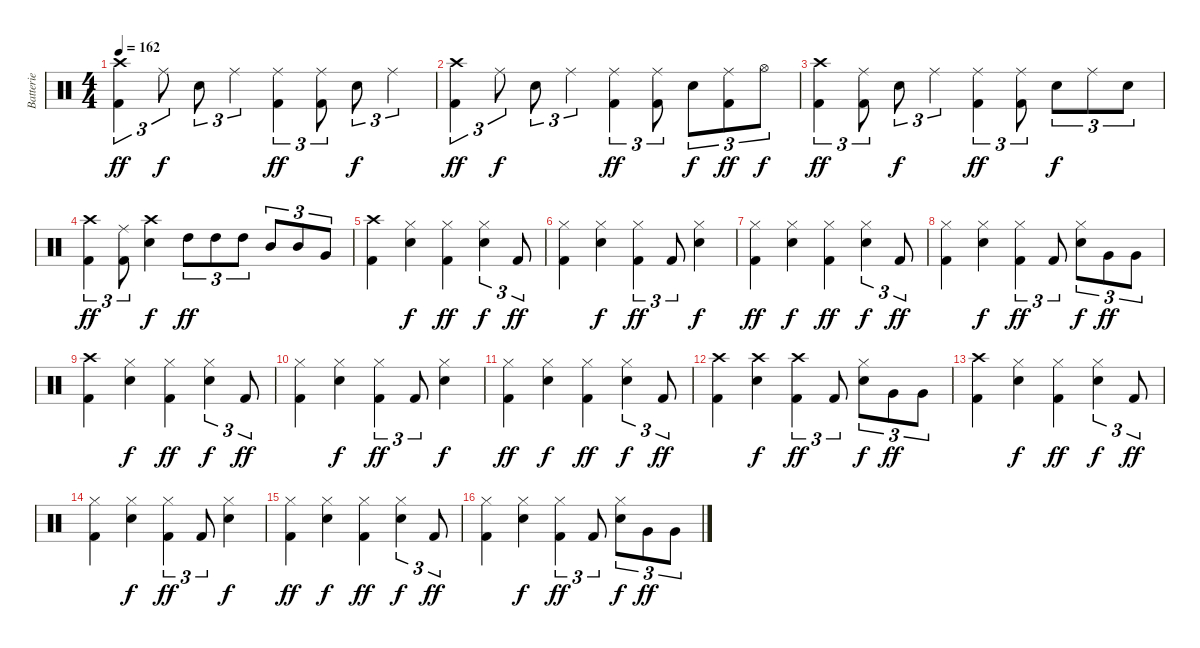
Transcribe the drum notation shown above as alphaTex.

\track ("Batterie" "Batterie") {instrument percussion}
\staff {score}
\articulation defaults
\ts (4 4)
\tempo 162
\clef neutral
\ks c
("Crash high (hit)" "Kick (hit) 2").4{tu (3 2) dy ff} "Ride (middle)".8{tu (3 2) dy f} "Snare (hit) 2".8{tu (3 2)} "Ride (middle)".4{tu (3 2)} ("Ride (middle)" "Kick (hit) 2").4{tu (3 2) dy ff} ("Ride (middle)" "Kick (hit) 2").8{tu (3 2)} "Snare (hit) 2".8{tu (3 2) dy f} "Ride (middle)".4{tu (3 2)} |
("Crash high (hit)" "Kick (hit) 2").4{tu (3 2) dy ff} "Ride (middle)".8{tu (3 2) dy f} "Snare (hit) 2".8{tu (3 2)} "Ride (middle)".4{tu (3 2)} ("Ride (middle)" "Kick (hit) 2").4{tu (3 2) dy ff} ("Ride (middle)" "Kick (hit) 2").8{tu (3 2)} "Snare (hit) 2".8{tu (3 2) dy f} ("Ride (middle)" "Kick (hit) 2").8{tu (3 2) dy ff} "Hi-Hat (open)".8{tu (3 2) dy f} |
("Crash high (hit)" "Kick (hit) 2").4{tu (3 2) dy ff} ("Ride (middle)" "Kick (hit) 2").8{tu (3 2)} "Snare (hit) 2".8{tu (3 2) dy f} "Ride (middle)".4{tu (3 2)} ("Ride (middle)" "Kick (hit) 2").4{tu (3 2) dy ff} ("Ride (middle)" "Kick (hit) 2").8{tu (3 2)} "Snare (hit) 2".8{tu (3 2) dy f} "Ride (middle)".8{tu (3 2)} "Snare (hit) 2".8{tu (3 2)} |
("Crash high (hit)" "Kick (hit) 2").4{tu (3 2) dy ff} ("Ride (middle)" "Kick (hit) 2").8{tu (3 2)} ("Crash high (hit)" "Snare (hit) 2").4{dy f} "High Tom (hit)".8{tu (3 2) dy ff} "High Tom (hit)".8{tu (3 2)} "High Tom (hit)".8{tu (3 2)} "Mid Tom (hit)".8{tu (3 2)} "Mid Tom (hit)".8{tu (3 2)} "Very Low Tom (hit)".8{tu (3 2)} |
("Crash high (hit)" "Kick (hit) 2").4 ("Hi-Hat (closed)" "Snare (hit) 2").4{dy f} ("Hi-Hat (closed)" "Kick (hit) 2").4{dy ff} ("Hi-Hat (closed)" "Snare (hit) 2").4{tu (3 2) dy f} "Kick (hit) 2".8{tu (3 2) dy ff} |
("Hi-Hat (closed)" "Kick (hit) 2").4 ("Hi-Hat (closed)" "Snare (hit) 2").4{dy f} ("Hi-Hat (closed)" "Kick (hit) 2").4{tu (3 2) dy ff} "Kick (hit) 2".8{tu (3 2)} ("Hi-Hat (closed)" "Snare (hit) 2").4{dy f} |
("Hi-Hat (closed)" "Kick (hit) 2").4{dy ff} ("Hi-Hat (closed)" "Snare (hit) 2").4{dy f} ("Hi-Hat (closed)" "Kick (hit) 2").4{dy ff} ("Hi-Hat (closed)" "Snare (hit) 2").4{tu (3 2) dy f} "Kick (hit) 2".8{tu (3 2) dy ff} |
("Hi-Hat (closed)" "Kick (hit) 2").4 ("Hi-Hat (closed)" "Snare (hit) 2").4{dy f} ("Hi-Hat (closed)" "Kick (hit) 2").4{tu (3 2) dy ff} "Kick (hit) 2".8{tu (3 2)} ("Hi-Hat (closed)" "Snare (hit) 2").8{tu (3 2) dy f} "Very Low Tom (hit)".8{tu (3 2) dy ff} "Very Low Tom (hit)".8{tu (3 2)} |
("Crash high (hit)" "Kick (hit) 2").4 ("Hi-Hat (closed)" "Snare (hit) 2").4{dy f} ("Hi-Hat (closed)" "Kick (hit) 2").4{dy ff} ("Hi-Hat (closed)" "Snare (hit) 2").4{tu (3 2) dy f} "Kick (hit) 2".8{tu (3 2) dy ff} |
("Hi-Hat (closed)" "Kick (hit) 2").4 ("Hi-Hat (closed)" "Snare (hit) 2").4{dy f} ("Hi-Hat (closed)" "Kick (hit) 2").4{tu (3 2) dy ff} "Kick (hit) 2".8{tu (3 2)} ("Hi-Hat (closed)" "Snare (hit) 2").4{dy f} |
("Hi-Hat (closed)" "Kick (hit) 2").4{dy ff} ("Hi-Hat (closed)" "Snare (hit) 2").4{dy f} ("Hi-Hat (closed)" "Kick (hit) 2").4{dy ff} ("Hi-Hat (closed)" "Snare (hit) 2").4{tu (3 2) dy f} "Kick (hit) 2".8{tu (3 2) dy ff} |
("Crash high (hit)" "Kick (hit) 2").4 ("Crash high (hit)" "Snare (hit) 2").4{dy f} ("Crash high (hit)" "Kick (hit) 2").4{tu (3 2) dy ff} "Kick (hit) 2".8{tu (3 2)} ("Hi-Hat (closed)" "Snare (hit) 2").8{tu (3 2) dy f} "Very Low Tom (hit)".8{tu (3 2) dy ff} "Very Low Tom (hit)".8{tu (3 2)} |
("Crash high (hit)" "Kick (hit) 2").4 ("Hi-Hat (closed)" "Snare (hit) 2").4{dy f} ("Hi-Hat (closed)" "Kick (hit) 2").4{dy ff} ("Hi-Hat (closed)" "Snare (hit) 2").4{tu (3 2) dy f} "Kick (hit) 2".8{tu (3 2) dy ff} |
("Hi-Hat (closed)" "Kick (hit) 2").4 ("Hi-Hat (closed)" "Snare (hit) 2").4{dy f} ("Hi-Hat (closed)" "Kick (hit) 2").4{tu (3 2) dy ff} "Kick (hit) 2".8{tu (3 2)} ("Hi-Hat (closed)" "Snare (hit) 2").4{dy f} |
("Hi-Hat (closed)" "Kick (hit) 2").4{dy ff} ("Hi-Hat (closed)" "Snare (hit) 2").4{dy f} ("Hi-Hat (closed)" "Kick (hit) 2").4{dy ff} ("Hi-Hat (closed)" "Snare (hit) 2").4{tu (3 2) dy f} "Kick (hit) 2".8{tu (3 2) dy ff} |
("Hi-Hat (closed)" "Kick (hit) 2").4 ("Hi-Hat (closed)" "Snare (hit) 2").4{dy f} ("Hi-Hat (closed)" "Kick (hit) 2").4{tu (3 2) dy ff} "Kick (hit) 2".8{tu (3 2)} ("Hi-Hat (closed)" "Snare (hit) 2").8{tu (3 2) dy f} "Very Low Tom (hit)".8{tu (3 2) dy ff} "Very Low Tom (hit)".8{tu (3 2)}
